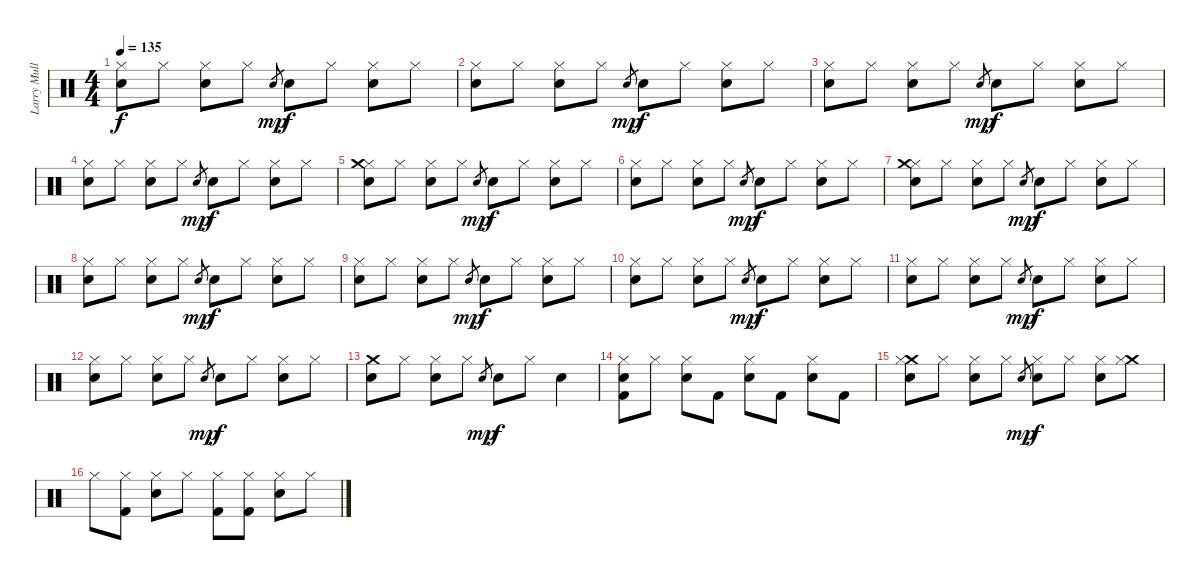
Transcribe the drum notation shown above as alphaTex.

\track ("Larry Mullen Jr." "Larry Mull") {instrument percussion}
\staff {score}
\articulation defaults
\ts (4 4)
\tempo 135
\clef neutral
\ks c
("Electric Snare (hit)" "Hi-Hat (closed)").8{dy f} "Hi-Hat (closed)".8 ("Electric Snare (hit)" "Hi-Hat (closed)").8 "Hi-Hat (closed)".8 "Electric Snare (hit)".8{gr dy mp} "Electric Snare (hit)".8{dy f} "Hi-Hat (closed)".8 ("Electric Snare (hit)" "Hi-Hat (closed)").8 "Hi-Hat (closed)".8 |
("Electric Snare (hit)" "Hi-Hat (closed)").8 "Hi-Hat (closed)".8 ("Electric Snare (hit)" "Hi-Hat (closed)").8 "Hi-Hat (closed)".8 "Electric Snare (hit)".8{gr dy mp} "Electric Snare (hit)".8{dy f} "Hi-Hat (closed)".8 ("Electric Snare (hit)" "Hi-Hat (closed)").8 "Hi-Hat (closed)".8 |
("Electric Snare (hit)" "Hi-Hat (closed)").8 "Hi-Hat (closed)".8 ("Electric Snare (hit)" "Hi-Hat (closed)").8 "Hi-Hat (closed)".8 "Electric Snare (hit)".8{gr dy mp} "Electric Snare (hit)".8{dy f} "Hi-Hat (closed)".8 ("Electric Snare (hit)" "Hi-Hat (closed)").8 "Hi-Hat (closed)".8 |
("Electric Snare (hit)" "Hi-Hat (closed)").8 "Hi-Hat (closed)".8 ("Electric Snare (hit)" "Hi-Hat (closed)").8 "Hi-Hat (closed)".8 "Electric Snare (hit)".8{gr dy mp} "Electric Snare (hit)".8{dy f} "Hi-Hat (closed)".8 ("Electric Snare (hit)" "Hi-Hat (closed)").8 "Hi-Hat (closed)".8 |
("Electric Snare (hit)" "Hi-Hat (closed)" "Crash medium (hit)").8 "Hi-Hat (closed)".8 ("Electric Snare (hit)" "Hi-Hat (closed)").8 "Hi-Hat (closed)".8 "Electric Snare (hit)".8{gr dy mp} "Electric Snare (hit)".8{dy f} "Hi-Hat (closed)".8 ("Electric Snare (hit)" "Hi-Hat (closed)").8 "Hi-Hat (closed)".8 |
("Electric Snare (hit)" "Hi-Hat (closed)").8 "Hi-Hat (closed)".8 ("Electric Snare (hit)" "Hi-Hat (closed)").8 "Hi-Hat (closed)".8 "Electric Snare (hit)".8{gr dy mp} "Electric Snare (hit)".8{dy f} "Hi-Hat (closed)".8 ("Electric Snare (hit)" "Hi-Hat (closed)").8 "Hi-Hat (closed)".8 |
("Electric Snare (hit)" "Hi-Hat (closed)" "Crash medium (hit)").8 "Hi-Hat (closed)".8 ("Electric Snare (hit)" "Hi-Hat (closed)").8 "Hi-Hat (closed)".8 "Electric Snare (hit)".8{gr dy mp} "Electric Snare (hit)".8{dy f} "Hi-Hat (closed)".8 ("Electric Snare (hit)" "Hi-Hat (closed)").8 "Hi-Hat (closed)".8 |
("Electric Snare (hit)" "Hi-Hat (closed)").8 "Hi-Hat (closed)".8 ("Electric Snare (hit)" "Hi-Hat (closed)").8 "Hi-Hat (closed)".8 "Electric Snare (hit)".8{gr dy mp} "Electric Snare (hit)".8{dy f} "Hi-Hat (closed)".8 ("Electric Snare (hit)" "Hi-Hat (closed)").8 "Hi-Hat (closed)".8 |
("Electric Snare (hit)" "Hi-Hat (closed)").8 "Hi-Hat (closed)".8 ("Electric Snare (hit)" "Hi-Hat (closed)").8 "Hi-Hat (closed)".8 "Electric Snare (hit)".8{gr dy mp} "Electric Snare (hit)".8{dy f} "Hi-Hat (closed)".8 ("Electric Snare (hit)" "Hi-Hat (closed)").8 "Hi-Hat (closed)".8 |
("Electric Snare (hit)" "Hi-Hat (closed)").8 "Hi-Hat (closed)".8 ("Electric Snare (hit)" "Hi-Hat (closed)").8 "Hi-Hat (closed)".8 "Electric Snare (hit)".8{gr dy mp} "Electric Snare (hit)".8{dy f} "Hi-Hat (closed)".8 ("Electric Snare (hit)" "Hi-Hat (closed)").8 "Hi-Hat (closed)".8 |
("Electric Snare (hit)" "Hi-Hat (closed)").8 "Hi-Hat (closed)".8 ("Electric Snare (hit)" "Hi-Hat (closed)").8 "Hi-Hat (closed)".8 "Electric Snare (hit)".8{gr dy mp} "Electric Snare (hit)".8{dy f} "Hi-Hat (closed)".8 ("Electric Snare (hit)" "Hi-Hat (closed)").8 "Hi-Hat (closed)".8 |
("Electric Snare (hit)" "Hi-Hat (closed)").8 "Hi-Hat (closed)".8 ("Electric Snare (hit)" "Hi-Hat (closed)").8 "Hi-Hat (closed)".8 "Electric Snare (hit)".8{gr dy mp} "Electric Snare (hit)".8{dy f} "Hi-Hat (closed)".8 ("Electric Snare (hit)" "Hi-Hat (closed)").8 "Hi-Hat (closed)".8 |
("Electric Snare (hit)" "Crash medium (hit)").8 "Hi-Hat (closed)".8 ("Electric Snare (hit)" "Hi-Hat (closed)").8 "Hi-Hat (closed)".8 "Electric Snare (hit)".8{gr dy mp} "Electric Snare (hit)".8{dy f} "Hi-Hat (closed)".8 "Electric Snare (hit)".4 |
("Electric Snare (hit)" "Kick (hit) 2" "Hi-Hat (closed)").8 "Hi-Hat (closed)".8 ("Electric Snare (hit)" "Hi-Hat (closed)").8 "Kick (hit) 2".8 ("Electric Snare (hit)" "Hi-Hat (closed)").8 "Kick (hit) 2".8 ("Electric Snare (hit)" "Hi-Hat (closed)").8 "Kick (hit) 2".8 |
("Electric Snare (hit)" "Crash medium (hit)" "Hi-Hat (closed)").8 "Hi-Hat (closed)".8 ("Electric Snare (hit)" "Hi-Hat (closed)").8 "Hi-Hat (closed)".8 "Electric Snare (hit)".8{gr dy mp} ("Electric Snare (hit)" "Hi-Hat (closed)").8{dy f} "Hi-Hat (closed)".8 ("Electric Snare (hit)" "Hi-Hat (closed)").8 ("Crash medium (hit)" "Hi-Hat (closed)").8 |
"Hi-Hat (closed)".8 ("Kick (hit) 2" "Hi-Hat (closed)").8 ("Electric Snare (hit)" "Hi-Hat (closed)").8 "Hi-Hat (closed)".8 ("Kick (hit) 2" "Hi-Hat (closed)").8 ("Kick (hit) 2" "Hi-Hat (closed)").8 ("Electric Snare (hit)" "Hi-Hat (closed)").8 "Hi-Hat (closed)".8
